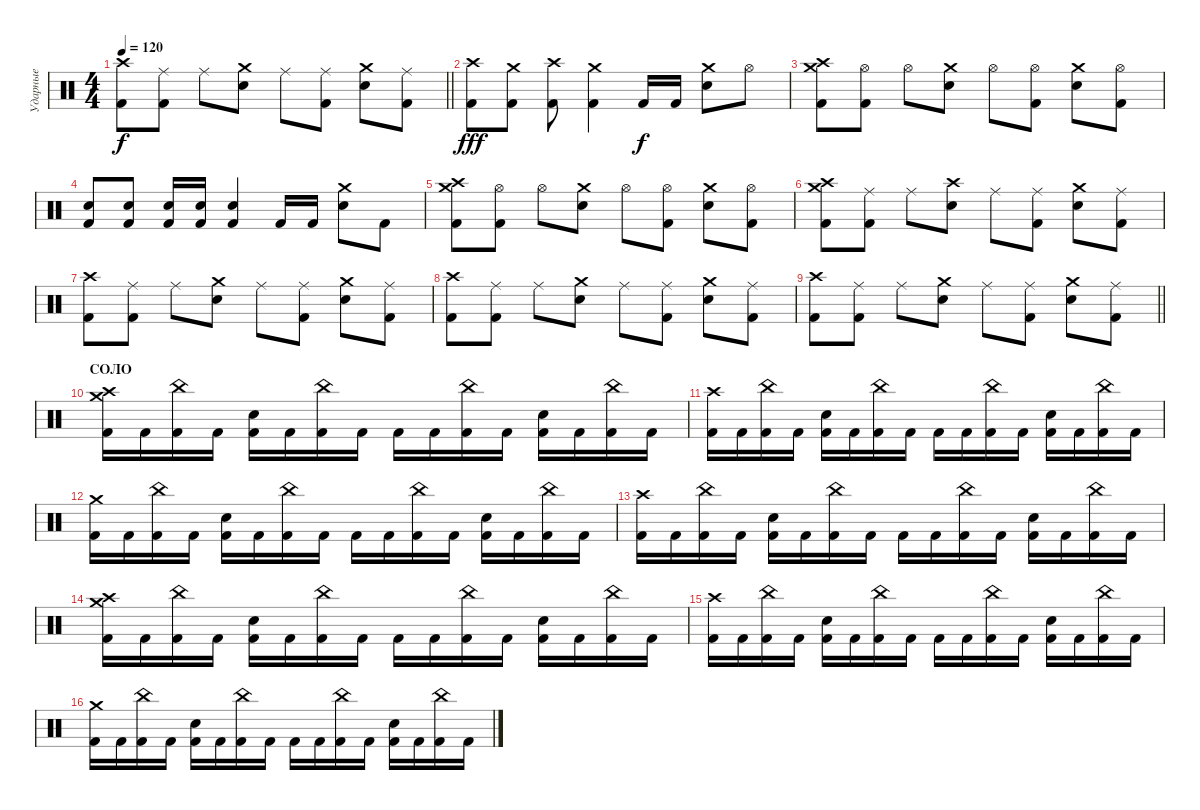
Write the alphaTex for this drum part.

\track ("Ударные" "Ударные") {instrument percussion}
\staff
\articulation defaults
\ts (4 4)
\tempo 120
\clef neutral
\barLineRight lightlight
\ks c
("Crash high (hit)" "Kick (hit) 2").8{dy f} ("Ride (middle)" "Kick (hit) 2").8 "Ride (middle)".8 ("Crash medium (hit)" "Electric Snare (hit)").8 "Ride (middle)".8 ("Ride (middle)" "Kick (hit) 2").8 ("Crash medium (hit)" "Electric Snare (hit)").8 ("Ride (middle)" "Kick (hit) 2").8 |
("Crash high (hit)" "Kick (hit) 2").8{dy fff} ("Crash medium (hit)" "Kick (hit) 2").8 ("Crash high (hit)" "Kick (hit) 2").8 ("Crash medium (hit)" "Kick (hit) 2").4 "Kick (hit) 2".16{dy f} "Kick (hit) 2".16 ("Crash medium (hit)" "Electric Snare (hit)").8 "Hi-Hat (open)".8 |
("Crash high (hit)" "Crash medium (hit)" "Kick (hit) 2").8 ("Hi-Hat (open)" "Kick (hit) 2").8 "Hi-Hat (open)".8 ("Crash medium (hit)" "Electric Snare (hit)").8 "Hi-Hat (open)".8 ("Hi-Hat (open)" "Kick (hit) 2").8 ("Crash medium (hit)" "Electric Snare (hit)").8 ("Hi-Hat (open)" "Kick (hit) 2").8 |
("Electric Snare (hit)" "Kick (hit) 2").8 ("Electric Snare (hit)" "Kick (hit) 2").8 ("Electric Snare (hit)" "Kick (hit) 2").16 ("Electric Snare (hit)" "Kick (hit) 2").16 ("Electric Snare (hit)" "Kick (hit) 2").4 "Kick (hit) 2".16 "Kick (hit) 2".16 ("Crash medium (hit)" "Electric Snare (hit)").8 "Kick (hit) 2".8 |
("Crash high (hit)" "Crash medium (hit)" "Kick (hit) 2").8 ("Hi-Hat (open)" "Kick (hit) 2").8 "Hi-Hat (open)".8 ("Crash medium (hit)" "Electric Snare (hit)").8 "Hi-Hat (open)".8 ("Hi-Hat (open)" "Kick (hit) 2").8 ("Crash medium (hit)" "Electric Snare (hit)").8 ("Hi-Hat (open)" "Kick (hit) 2").8 |
("Crash high (hit)" "Crash medium (hit)" "Kick (hit) 2").8 ("Ride (middle)" "Kick (hit) 2").8 "Ride (middle)".8 ("Crash high (hit)" "Electric Snare (hit)").8 "Ride (middle)".8 ("Ride (middle)" "Kick (hit) 2").8 ("Crash medium (hit)" "Electric Snare (hit)").8 ("Ride (middle)" "Kick (hit) 2").8 |
("Crash high (hit)" "Kick (hit) 2").8 ("Ride (middle)" "Kick (hit) 2").8 "Ride (middle)".8 ("Crash medium (hit)" "Electric Snare (hit)").8 "Ride (middle)".8 ("Ride (middle)" "Kick (hit) 2").8 ("Crash medium (hit)" "Electric Snare (hit)").8 ("Ride (middle)" "Kick (hit) 2").8 |
("Crash high (hit)" "Kick (hit) 2").8 ("Ride (middle)" "Kick (hit) 2").8 "Ride (middle)".8 ("Crash medium (hit)" "Electric Snare (hit)").8 "Ride (middle)".8 ("Ride (middle)" "Kick (hit) 2").8 ("Crash medium (hit)" "Electric Snare (hit)").8 ("Ride (middle)" "Kick (hit) 2").8 |
\barLineRight lightlight
("Crash high (hit)" "Kick (hit) 2").8 ("Ride (middle)" "Kick (hit) 2").8 "Ride (middle)".8 ("Crash medium (hit)" "Electric Snare (hit)").8 "Ride (middle)".8 ("Ride (middle)" "Kick (hit) 2").8 ("Crash medium (hit)" "Electric Snare (hit)").8 ("Ride (middle)" "Kick (hit) 2").8 |
\section ("" "СОЛО")
("Crash high (hit)" "Crash medium (hit)" "Kick (hit) 2").16 "Kick (hit) 2".16 ("China (hit)" "Kick (hit) 2").16 "Kick (hit) 2".16 ("Electric Snare (hit)" "Kick (hit) 2").16 "Kick (hit) 2".16 ("China (hit)" "Kick (hit) 2").16 "Kick (hit) 2".16 "Kick (hit) 2".16 "Kick (hit) 2".16 ("China (hit)" "Kick (hit) 2").16 "Kick (hit) 2".16 ("Electric Snare (hit)" "Kick (hit) 2").16 "Kick (hit) 2".16 ("China (hit)" "Kick (hit) 2").16 "Kick (hit) 2".16 |
("Crash high (hit)" "Kick (hit) 2").16 "Kick (hit) 2".16 ("China (hit)" "Kick (hit) 2").16 "Kick (hit) 2".16 ("Electric Snare (hit)" "Kick (hit) 2").16 "Kick (hit) 2".16 ("China (hit)" "Kick (hit) 2").16 "Kick (hit) 2".16 "Kick (hit) 2".16 "Kick (hit) 2".16 ("China (hit)" "Kick (hit) 2").16 "Kick (hit) 2".16 ("Electric Snare (hit)" "Kick (hit) 2").16 "Kick (hit) 2".16 ("China (hit)" "Kick (hit) 2").16 "Kick (hit) 2".16 |
("Crash medium (hit)" "Kick (hit) 2").16 "Kick (hit) 2".16 ("China (hit)" "Kick (hit) 2").16 "Kick (hit) 2".16 ("Electric Snare (hit)" "Kick (hit) 2").16 "Kick (hit) 2".16 ("China (hit)" "Kick (hit) 2").16 "Kick (hit) 2".16 "Kick (hit) 2".16 "Kick (hit) 2".16 ("China (hit)" "Kick (hit) 2").16 "Kick (hit) 2".16 ("Electric Snare (hit)" "Kick (hit) 2").16 "Kick (hit) 2".16 ("China (hit)" "Kick (hit) 2").16 "Kick (hit) 2".16 |
("Crash high (hit)" "Kick (hit) 2").16 "Kick (hit) 2".16 ("China (hit)" "Kick (hit) 2").16 "Kick (hit) 2".16 ("Electric Snare (hit)" "Kick (hit) 2").16 "Kick (hit) 2".16 ("China (hit)" "Kick (hit) 2").16 "Kick (hit) 2".16 "Kick (hit) 2".16 "Kick (hit) 2".16 ("China (hit)" "Kick (hit) 2").16 "Kick (hit) 2".16 ("Electric Snare (hit)" "Kick (hit) 2").16 "Kick (hit) 2".16 ("China (hit)" "Kick (hit) 2").16 "Kick (hit) 2".16 |
("Crash high (hit)" "Crash medium (hit)" "Kick (hit) 2").16 "Kick (hit) 2".16 ("China (hit)" "Kick (hit) 2").16 "Kick (hit) 2".16 ("Electric Snare (hit)" "Kick (hit) 2").16 "Kick (hit) 2".16 ("China (hit)" "Kick (hit) 2").16 "Kick (hit) 2".16 "Kick (hit) 2".16 "Kick (hit) 2".16 ("China (hit)" "Kick (hit) 2").16 "Kick (hit) 2".16 ("Electric Snare (hit)" "Kick (hit) 2").16 "Kick (hit) 2".16 ("China (hit)" "Kick (hit) 2").16 "Kick (hit) 2".16 |
("Crash high (hit)" "Kick (hit) 2").16 "Kick (hit) 2".16 ("China (hit)" "Kick (hit) 2").16 "Kick (hit) 2".16 ("Electric Snare (hit)" "Kick (hit) 2").16 "Kick (hit) 2".16 ("China (hit)" "Kick (hit) 2").16 "Kick (hit) 2".16 "Kick (hit) 2".16 "Kick (hit) 2".16 ("China (hit)" "Kick (hit) 2").16 "Kick (hit) 2".16 ("Electric Snare (hit)" "Kick (hit) 2").16 "Kick (hit) 2".16 ("China (hit)" "Kick (hit) 2").16 "Kick (hit) 2".16 |
("Crash medium (hit)" "Kick (hit) 2").16 "Kick (hit) 2".16 ("China (hit)" "Kick (hit) 2").16 "Kick (hit) 2".16 ("Electric Snare (hit)" "Kick (hit) 2").16 "Kick (hit) 2".16 ("China (hit)" "Kick (hit) 2").16 "Kick (hit) 2".16 "Kick (hit) 2".16 "Kick (hit) 2".16 ("China (hit)" "Kick (hit) 2").16 "Kick (hit) 2".16 ("Electric Snare (hit)" "Kick (hit) 2").16 "Kick (hit) 2".16 ("China (hit)" "Kick (hit) 2").16 "Kick (hit) 2".16
